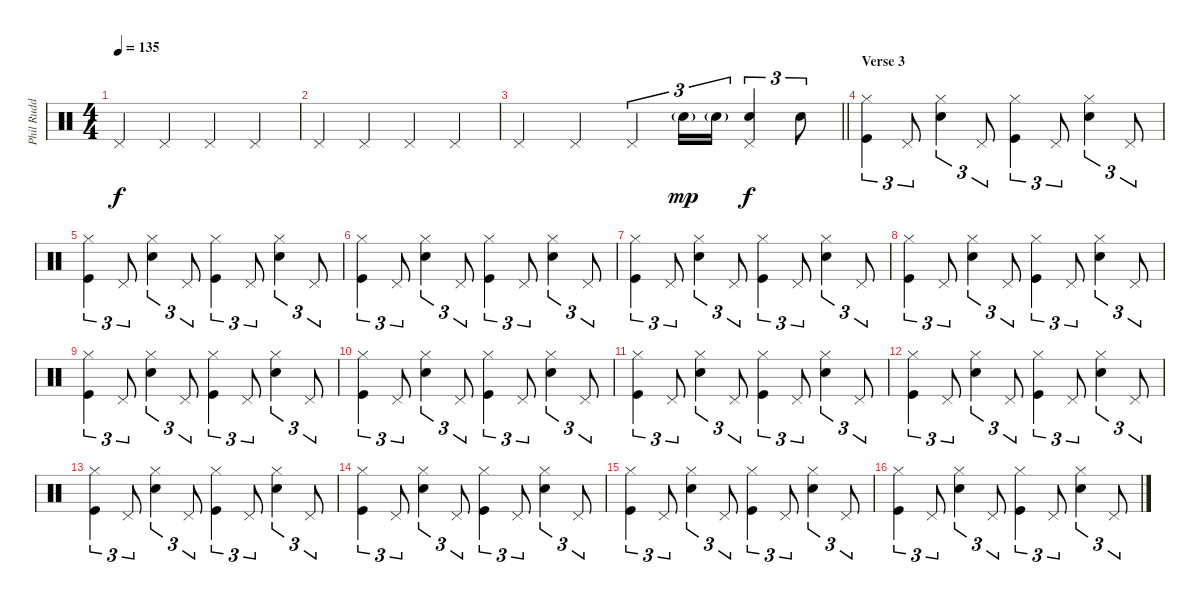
\track ("Phil Rudd" "Phil Rudd") {instrument percussion}
\staff {score}
\articulation defaults
\ts (4 4)
\tempo 135
\clef neutral
\ks c "Pedal Hi-Hat (hit)".4{dy f} "Pedal Hi-Hat (hit)".4 "Pedal Hi-Hat (hit)".4 "Pedal Hi-Hat (hit)".4
|
"Pedal Hi-Hat (hit)".4 "Pedal Hi-Hat (hit)".4 "Pedal Hi-Hat (hit)".4 "Pedal Hi-Hat (hit)".4 |
\barLineRight lightlight "Pedal Hi-Hat (hit)".4 "Pedal Hi-Hat (hit)".4 "Pedal Hi-Hat (hit)".4{tu (3 2)} "Snare (hit) 2"{g}.16{tu (3 2) dy mp} "Snare (hit) 2"{g}.16{tu (3 2)}
("Pedal Hi-Hat (hit)" "Snare (hit) 2").4{tu (3 2) dy f} "Snare (hit) 2".8{tu (3 2)} |
\section ("" "Verse 3")
("Hi-Hat (closed)" "Kick (hit)").4{tu (3 2)} "Pedal Hi-Hat (hit)".8{tu (3 2)} ("Hi-Hat (closed)" "Snare (hit) 2").4{tu (3 2)} "Pedal Hi-Hat (hit)".8{tu (3 2)} ("Hi-Hat (closed)" "Kick (hit)").4{tu (3 2)} "Pedal Hi-Hat (hit)".8{tu (3 2)} ("Hi-Hat (closed)" "Snare (hit) 2").4{tu (3 2)} "Pedal Hi-Hat (hit)".8{tu (3 2)} |
("Hi-Hat (closed)" "Kick (hit)").4{tu (3 2)} "Pedal Hi-Hat (hit)".8{tu (3 2)} ("Hi-Hat (closed)" "Snare (hit) 2").4{tu (3 2)} "Pedal Hi-Hat (hit)".8{tu (3 2)} ("Hi-Hat (closed)" "Kick (hit)").4{tu (3 2)} "Pedal Hi-Hat (hit)".8{tu (3 2)} ("Hi-Hat (closed)" "Snare (hit) 2").4{tu (3 2)} "Pedal Hi-Hat (hit)".8{tu (3 2)} |
("Hi-Hat (closed)" "Kick (hit)").4{tu (3 2)} "Pedal Hi-Hat (hit)".8{tu (3 2)} ("Hi-Hat (closed)" "Snare (hit) 2").4{tu (3 2)} "Pedal Hi-Hat (hit)".8{tu (3 2)} ("Hi-Hat (closed)" "Kick (hit)").4{tu (3 2)} "Pedal Hi-Hat (hit)".8{tu (3 2)} ("Hi-Hat (closed)" "Snare (hit) 2").4{tu (3 2)} "Pedal Hi-Hat (hit)".8{tu (3 2)} |
("Hi-Hat (closed)" "Kick (hit)").4{tu (3 2)} "Pedal Hi-Hat (hit)".8{tu (3 2)} ("Hi-Hat (closed)" "Snare (hit) 2").4{tu (3 2)} "Pedal Hi-Hat (hit)".8{tu (3 2)} ("Hi-Hat (closed)" "Kick (hit)").4{tu (3 2)} "Pedal Hi-Hat (hit)".8{tu (3 2)} ("Hi-Hat (closed)" "Snare (hit) 2").4{tu (3 2)} "Pedal Hi-Hat (hit)".8{tu (3 2)} |
("Hi-Hat (closed)" "Kick (hit)").4{tu (3 2)} "Pedal Hi-Hat (hit)".8{tu (3 2)} ("Hi-Hat (closed)" "Snare (hit) 2").4{tu (3 2)} "Pedal Hi-Hat (hit)".8{tu (3 2)} ("Hi-Hat (closed)" "Kick (hit)").4{tu (3 2)} "Pedal Hi-Hat (hit)".8{tu (3 2)} ("Hi-Hat (closed)" "Snare (hit) 2").4{tu (3 2)} "Pedal Hi-Hat (hit)".8{tu (3 2)} |
("Hi-Hat (closed)" "Kick (hit)").4{tu (3 2)} "Pedal Hi-Hat (hit)".8{tu (3 2)} ("Hi-Hat (closed)" "Snare (hit) 2").4{tu (3 2)} "Pedal Hi-Hat (hit)".8{tu (3 2)} ("Hi-Hat (closed)" "Kick (hit)").4{tu (3 2)} "Pedal Hi-Hat (hit)".8{tu (3 2)} ("Hi-Hat (closed)" "Snare (hit) 2").4{tu (3 2)} "Pedal Hi-Hat (hit)".8{tu (3 2)} |
("Hi-Hat (closed)" "Kick (hit)").4{tu (3 2)} "Pedal Hi-Hat (hit)".8{tu (3 2)} ("Hi-Hat (closed)" "Snare (hit) 2").4{tu (3 2)} "Pedal Hi-Hat (hit)".8{tu (3 2)} ("Hi-Hat (closed)" "Kick (hit)").4{tu (3 2)} "Pedal Hi-Hat (hit)".8{tu (3 2)} ("Hi-Hat (closed)" "Snare (hit) 2").4{tu (3 2)} "Pedal Hi-Hat (hit)".8{tu (3 2)} |
("Hi-Hat (closed)" "Kick (hit)").4{tu (3 2)} "Pedal Hi-Hat (hit)".8{tu (3 2)} ("Hi-Hat (closed)" "Snare (hit) 2").4{tu (3 2)} "Pedal Hi-Hat (hit)".8{tu (3 2)} ("Hi-Hat (closed)" "Kick (hit)").4{tu (3 2)} "Pedal Hi-Hat (hit)".8{tu (3 2)} ("Hi-Hat (closed)" "Snare (hit) 2").4{tu (3 2)} "Pedal Hi-Hat (hit)".8{tu (3 2)} |
("Hi-Hat (closed)" "Kick (hit)").4{tu (3 2)} "Pedal Hi-Hat (hit)".8{tu (3 2)} ("Hi-Hat (closed)" "Snare (hit) 2").4{tu (3 2)} "Pedal Hi-Hat (hit)".8{tu (3 2)} ("Hi-Hat (closed)" "Kick (hit)").4{tu (3 2)} "Pedal Hi-Hat (hit)".8{tu (3 2)} ("Hi-Hat (closed)" "Snare (hit) 2").4{tu (3 2)} "Pedal Hi-Hat (hit)".8{tu (3 2)} |
("Hi-Hat (closed)" "Kick (hit)").4{tu (3 2)} "Pedal Hi-Hat (hit)".8{tu (3 2)} ("Hi-Hat (closed)" "Snare (hit) 2").4{tu (3 2)} "Pedal Hi-Hat (hit)".8{tu (3 2)} ("Hi-Hat (closed)" "Kick (hit)").4{tu (3 2)} "Pedal Hi-Hat (hit)".8{tu (3 2)} ("Hi-Hat (closed)" "Snare (hit) 2").4{tu (3 2)} "Pedal Hi-Hat (hit)".8{tu (3 2)} |
("Hi-Hat (closed)" "Kick (hit)").4{tu (3 2)} "Pedal Hi-Hat (hit)".8{tu (3 2)} ("Hi-Hat (closed)" "Snare (hit) 2").4{tu (3 2)} "Pedal Hi-Hat (hit)".8{tu (3 2)} ("Hi-Hat (closed)" "Kick (hit)").4{tu (3 2)} "Pedal Hi-Hat (hit)".8{tu (3 2)} ("Hi-Hat (closed)" "Snare (hit) 2").4{tu (3 2)} "Pedal Hi-Hat (hit)".8{tu (3 2)} |
("Hi-Hat (closed)" "Kick (hit)").4{tu (3 2)} "Pedal Hi-Hat (hit)".8{tu (3 2)} ("Hi-Hat (closed)" "Snare (hit) 2").4{tu (3 2)} "Pedal Hi-Hat (hit)".8{tu (3 2)} ("Hi-Hat (closed)" "Kick (hit)").4{tu (3 2)} "Pedal Hi-Hat (hit)".8{tu (3 2)} ("Hi-Hat (closed)" "Snare (hit) 2").4{tu (3 2)} "Pedal Hi-Hat (hit)".8{tu (3 2)} |
("Hi-Hat (closed)" "Kick (hit)").4{tu (3 2)} "Pedal Hi-Hat (hit)".8{tu (3 2)} ("Hi-Hat (closed)" "Snare (hit) 2").4{tu (3 2)} "Pedal Hi-Hat (hit)".8{tu (3 2)} ("Hi-Hat (closed)" "Kick (hit)").4{tu (3 2)} "Pedal Hi-Hat (hit)".8{tu (3 2)} ("Hi-Hat (closed)" "Snare (hit) 2").4{tu (3 2)} "Pedal Hi-Hat (hit)".8{tu (3 2)}
